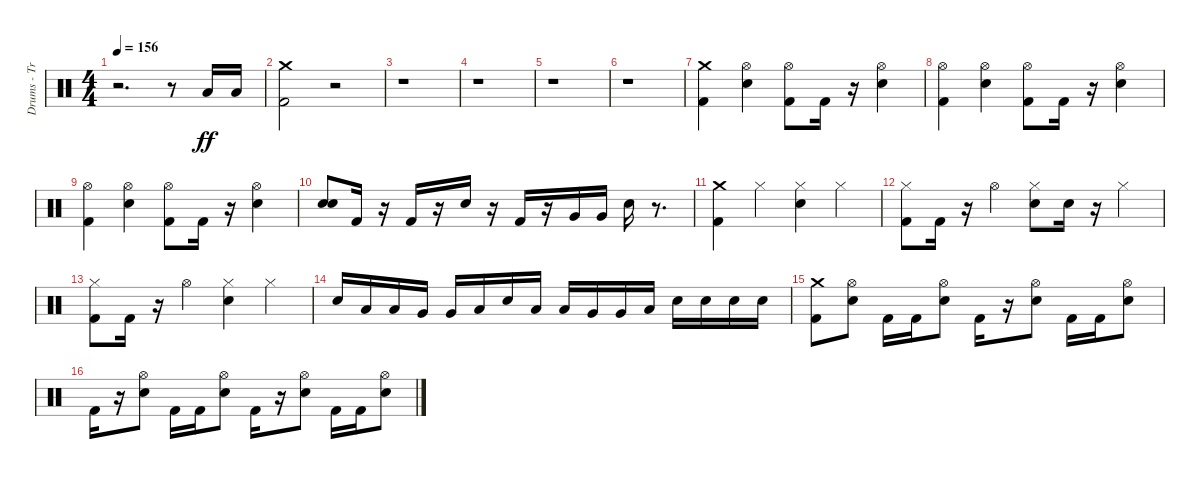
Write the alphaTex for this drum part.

\track ("Drums - Travis" "Drums - Tr") {instrument percussion}
\staff {score}
\articulation defaults
\ts (4 4)
\tempo 156
\clef neutral
\ks c
r.2{d dy ff} r.8 "Low Tom (hit)".16 "Low Tom (hit)".16 |
("Kick (hit) 2" "Crash medium (hit)").2 r.2 |
r.1 |
r.1 |
r.1 |
r.1 |
("Kick (hit) 2" "Crash medium (hit)").4 ("Hi-Hat (open)" "Electric Snare (hit)").4 ("Kick (hit) 2" "Hi-Hat (open)").8 "Kick (hit) 2".16 r.16 ("Electric Snare (hit)" "Hi-Hat (open)").4 |
("Kick (hit) 2" "Hi-Hat (open)").4 ("Electric Snare (hit)" "Hi-Hat (open)").4 ("Kick (hit) 2" "Hi-Hat (open)").8 "Kick (hit) 2".16 r.16 ("Electric Snare (hit)" "Hi-Hat (open)").4 |
("Kick (hit) 2" "Hi-Hat (open)").4 ("Electric Snare (hit)" "Hi-Hat (open)").4 ("Kick (hit) 2" "Hi-Hat (open)").8 "Kick (hit) 2".16 r.16 ("Electric Snare (hit)" "Hi-Hat (open)").4 |
("Electric Snare (hit)" "Electric Snare (hit)").8 "Kick (hit) 2".16 r.16 "Kick (hit) 2".16 r.16 "Electric Snare (hit)".16 r.16 "Kick (hit) 2".16 r.16 "Very Low Tom (hit)".16 "Very Low Tom (hit)".16 "Electric Snare (hit)".16 r.8{d} |
("Kick (hit) 2" "Crash medium (hit)").4 "Hi-Hat (closed)".4 ("Electric Snare (hit)" "Hi-Hat (closed)").4 "Hi-Hat (closed)".4 |
("Kick (hit) 2" "Hi-Hat (closed)").8 "Kick (hit) 2".16 r.16 "Hi-Hat (open)".4 ("Electric Snare (hit)" "Hi-Hat (closed)").8 "Electric Snare (hit)".16 r.16 "Hi-Hat (closed)".4 |
("Kick (hit) 2" "Hi-Hat (closed)").8 "Kick (hit) 2".16 r.16 "Hi-Hat (open)".4 ("Electric Snare (hit)" "Hi-Hat (closed)").4 "Hi-Hat (closed)".4 |
"Electric Snare (hit)".16 "Low Tom (hit)".16 "Low Tom (hit)".16 "Very Low Tom (hit)".16 "Very Low Tom (hit)".16 "Low Floor Tom (hit)".16 "Electric Snare (hit)".16 "Low Tom (hit)".16 "Low Tom (hit)".16 "Very Low Tom (hit)".16 "Very Low Tom (hit)".16 "Low Floor Tom (hit)".16 "Electric Snare (hit)".16 "Electric Snare (hit)".16 "Electric Snare (hit)".16 "Electric Snare (hit)".16 |
("Kick (hit) 2" "Crash medium (hit)").8 ("Electric Snare (hit)" "Hi-Hat (open)").8 "Kick (hit) 2".16 "Kick (hit) 2".16 ("Electric Snare (hit)" "Hi-Hat (open)").8 "Kick (hit) 2".16 r.16 ("Electric Snare (hit)" "Hi-Hat (open)").8 "Kick (hit) 2".16 "Kick (hit) 2".16 ("Electric Snare (hit)" "Hi-Hat (open)").8 |
"Kick (hit) 2".16 r.16 ("Electric Snare (hit)" "Hi-Hat (open)").8 "Kick (hit) 2".16 "Kick (hit) 2".16 ("Electric Snare (hit)" "Hi-Hat (open)").8 "Kick (hit) 2".16 r.16 ("Electric Snare (hit)" "Hi-Hat (open)").8 "Kick (hit) 2".16 "Kick (hit) 2".16 ("Electric Snare (hit)" "Hi-Hat (open)").8
